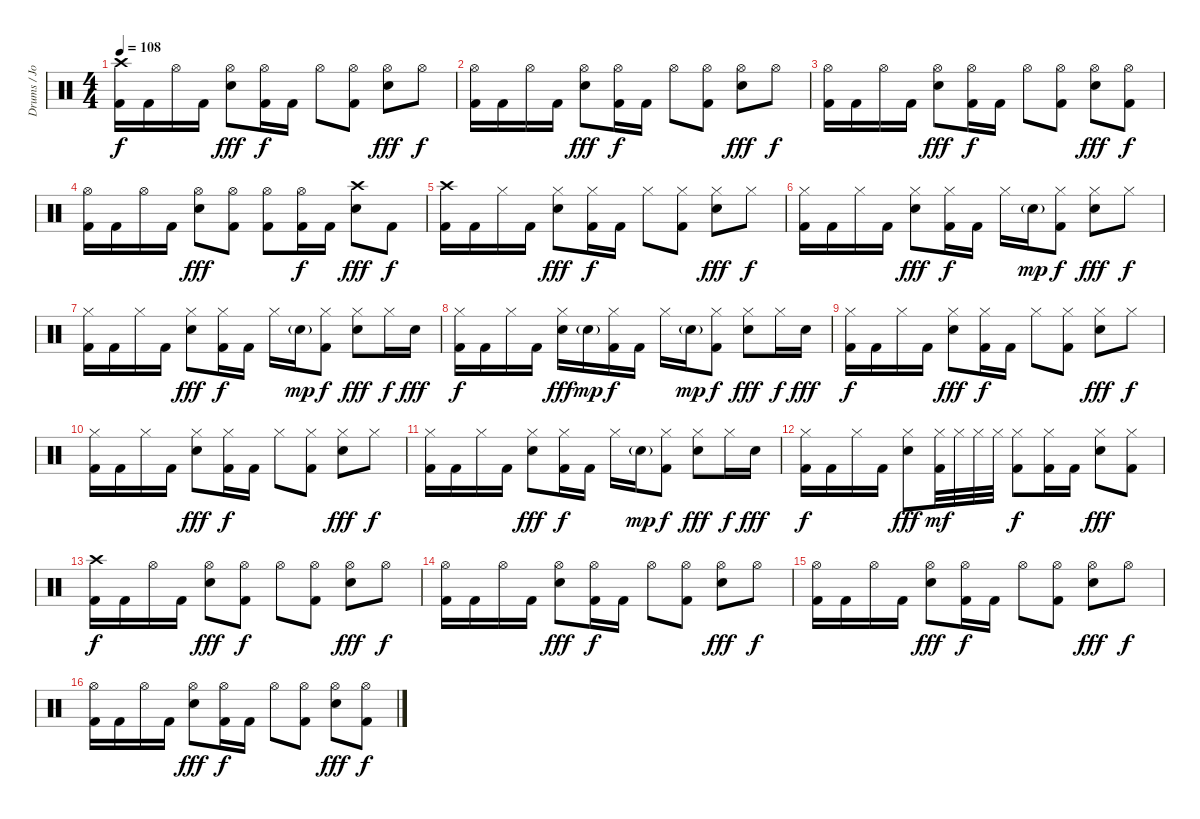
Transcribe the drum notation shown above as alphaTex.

\track ("Drums / Jon Wysocki" "Drums / Jo") {instrument percussion}
\staff {score}
\articulation defaults
\ts (4 4)
\tempo 108
\clef neutral
\ks c
("Crash high (hit)" "Kick (hit) 2").16{dy f} "Kick (hit) 2".16 "Hi-Hat (open)".16 "Kick (hit) 2".16 ("Hi-Hat (open)" "Electric Snare (hit)").8{dy fff} ("Hi-Hat (open)" "Kick (hit) 2").16{dy f} "Kick (hit) 2".16 "Hi-Hat (open)".8 ("Hi-Hat (open)" "Kick (hit) 2").8 ("Hi-Hat (open)" "Electric Snare (hit)").8{dy fff} "Hi-Hat (open)".8{dy f} |
("Hi-Hat (open)" "Kick (hit) 2").16 "Kick (hit) 2".16 "Hi-Hat (open)".16 "Kick (hit) 2".16 ("Hi-Hat (open)" "Electric Snare (hit)").8{dy fff} ("Hi-Hat (open)" "Kick (hit) 2").16{dy f} "Kick (hit) 2".16 "Hi-Hat (open)".8 ("Hi-Hat (open)" "Kick (hit) 2").8 ("Hi-Hat (open)" "Electric Snare (hit)").8{dy fff} "Hi-Hat (open)".8{dy f} |
("Hi-Hat (open)" "Kick (hit) 2").16 "Kick (hit) 2".16 "Hi-Hat (open)".16 "Kick (hit) 2".16 ("Hi-Hat (open)" "Electric Snare (hit)").8{dy fff} ("Hi-Hat (open)" "Kick (hit) 2").16{dy f} "Kick (hit) 2".16 "Hi-Hat (open)".8 ("Hi-Hat (open)" "Kick (hit) 2").8 ("Hi-Hat (open)" "Electric Snare (hit)").8{dy fff} ("Hi-Hat (open)" "Kick (hit) 2").8{dy f} |
("Hi-Hat (open)" "Kick (hit) 2").16 "Kick (hit) 2".16 "Hi-Hat (open)".16 "Kick (hit) 2".16 ("Hi-Hat (open)" "Electric Snare (hit)").8{dy fff} ("Hi-Hat (open)" "Kick (hit) 2").8 ("Hi-Hat (open)" "Kick (hit) 2").8 ("Hi-Hat (open)" "Kick (hit) 2").16{dy f} "Kick (hit) 2".16 ("Crash high (hit)" "Electric Snare (hit)").8{dy fff} "Kick (hit) 2".8{dy f} |
("Crash high (hit)" "Kick (hit) 2").16 "Kick (hit) 2".16 "Hi-Hat (closed)".16 "Kick (hit) 2".16 ("Hi-Hat (closed)" "Electric Snare (hit)").8{dy fff} ("Hi-Hat (closed)" "Kick (hit) 2").16{dy f} "Kick (hit) 2".16 "Hi-Hat (closed)".8 ("Hi-Hat (closed)" "Kick (hit) 2").8 ("Hi-Hat (closed)" "Electric Snare (hit)").8{dy fff} "Hi-Hat (closed)".8{dy f} |
("Hi-Hat (closed)" "Kick (hit) 2").16 "Kick (hit) 2".16 "Hi-Hat (closed)".16 "Kick (hit) 2".16 ("Hi-Hat (closed)" "Electric Snare (hit)").8{dy fff} ("Hi-Hat (closed)" "Kick (hit) 2").16{dy f} "Kick (hit) 2".16 "Hi-Hat (closed)".16 "Electric Snare (hit)"{g}.16{dy mp} ("Hi-Hat (closed)" "Kick (hit) 2").8{dy f} ("Hi-Hat (closed)" "Electric Snare (hit)").8{dy fff} "Hi-Hat (closed)".8{dy f} |
("Hi-Hat (closed)" "Kick (hit) 2").16 "Kick (hit) 2".16 "Hi-Hat (closed)".16 "Kick (hit) 2".16 ("Hi-Hat (closed)" "Electric Snare (hit)").8{dy fff} ("Hi-Hat (closed)" "Kick (hit) 2").16{dy f} "Kick (hit) 2".16 "Hi-Hat (closed)".16 "Electric Snare (hit)"{g}.16{dy mp} ("Hi-Hat (closed)" "Kick (hit) 2").8{dy f} ("Hi-Hat (closed)" "Electric Snare (hit)").8{dy fff} "Hi-Hat (closed)".16{dy f} "Electric Snare (hit)".16{dy fff} |
("Hi-Hat (closed)" "Kick (hit) 2").16{dy f} "Kick (hit) 2".16 "Hi-Hat (closed)".16 "Kick (hit) 2".16 ("Hi-Hat (closed)" "Electric Snare (hit)").16{dy fff} "Electric Snare (hit)"{g}.16{dy mp} ("Hi-Hat (closed)" "Kick (hit) 2").16{dy f} "Kick (hit) 2".16 "Hi-Hat (closed)".16 "Electric Snare (hit)"{g}.16{dy mp} ("Hi-Hat (closed)" "Kick (hit) 2").8{dy f} ("Hi-Hat (closed)" "Electric Snare (hit)").8{dy fff} "Hi-Hat (closed)".16{dy f} "Electric Snare (hit)".16{dy fff} |
("Hi-Hat (closed)" "Kick (hit) 2").16{dy f} "Kick (hit) 2".16 "Hi-Hat (closed)".16 "Kick (hit) 2".16 ("Hi-Hat (closed)" "Electric Snare (hit)").8{dy fff} ("Hi-Hat (closed)" "Kick (hit) 2").16{dy f} "Kick (hit) 2".16 "Hi-Hat (closed)".8 ("Hi-Hat (closed)" "Kick (hit) 2").8 ("Hi-Hat (closed)" "Electric Snare (hit)").8{dy fff} "Hi-Hat (closed)".8{dy f} |
("Hi-Hat (closed)" "Kick (hit) 2").16 "Kick (hit) 2".16 "Hi-Hat (closed)".16 "Kick (hit) 2".16 ("Hi-Hat (closed)" "Electric Snare (hit)").8{dy fff} ("Hi-Hat (closed)" "Kick (hit) 2").16{dy f} "Kick (hit) 2".16 "Hi-Hat (closed)".8 ("Hi-Hat (closed)" "Kick (hit) 2").8 ("Hi-Hat (closed)" "Electric Snare (hit)").8{dy fff} "Hi-Hat (closed)".8{dy f} |
("Hi-Hat (closed)" "Kick (hit) 2").16 "Kick (hit) 2".16 "Hi-Hat (closed)".16 "Kick (hit) 2".16 ("Hi-Hat (closed)" "Electric Snare (hit)").8{dy fff} ("Hi-Hat (closed)" "Kick (hit) 2").16{dy f} "Kick (hit) 2".16 "Hi-Hat (closed)".16 "Electric Snare (hit)"{g}.16{dy mp} ("Hi-Hat (closed)" "Kick (hit) 2").8{dy f} ("Hi-Hat (closed)" "Electric Snare (hit)").8{dy fff} "Hi-Hat (closed)".16{dy f} "Electric Snare (hit)".16{dy fff} |
("Hi-Hat (closed)" "Kick (hit) 2").16{dy f} "Kick (hit) 2".16 "Hi-Hat (closed)".16 "Kick (hit) 2".16 ("Hi-Hat (closed)" "Electric Snare (hit)").8{dy fff} ("Hi-Hat (closed)" "Kick (hit) 2").32{dy mf} "Hi-Hat (closed)".32 "Hi-Hat (closed)".32 "Hi-Hat (closed)".32 ("Hi-Hat (closed)" "Kick (hit) 2").8{dy f} ("Hi-Hat (closed)" "Kick (hit) 2").16 "Kick (hit) 2".16 ("Hi-Hat (closed)" "Electric Snare (hit)").8{dy fff} ("Hi-Hat (closed)" "Kick (hit) 2").8 |
("Crash high (hit)" "Kick (hit) 2").16{dy f} "Kick (hit) 2".16 "Hi-Hat (open)".16 "Kick (hit) 2".16 ("Hi-Hat (open)" "Electric Snare (hit)").8{dy fff} ("Hi-Hat (open)" "Kick (hit) 2").8{dy f} "Hi-Hat (open)".8 ("Hi-Hat (open)" "Kick (hit) 2").8 ("Hi-Hat (open)" "Electric Snare (hit)").8{dy fff} "Hi-Hat (open)".8{dy f} |
("Hi-Hat (open)" "Kick (hit) 2").16 "Kick (hit) 2".16 "Hi-Hat (open)".16 "Kick (hit) 2".16 ("Hi-Hat (open)" "Electric Snare (hit)").8{dy fff} ("Hi-Hat (open)" "Kick (hit) 2").16{dy f} "Kick (hit) 2".16 "Hi-Hat (open)".8 ("Hi-Hat (open)" "Kick (hit) 2").8 ("Hi-Hat (open)" "Electric Snare (hit)").8{dy fff} "Hi-Hat (open)".8{dy f} |
("Hi-Hat (open)" "Kick (hit) 2").16 "Kick (hit) 2".16 "Hi-Hat (open)".16 "Kick (hit) 2".16 ("Hi-Hat (open)" "Electric Snare (hit)").8{dy fff} ("Hi-Hat (open)" "Kick (hit) 2").16{dy f} "Kick (hit) 2".16 "Hi-Hat (open)".8 ("Hi-Hat (open)" "Kick (hit) 2").8 ("Hi-Hat (open)" "Electric Snare (hit)").8{dy fff} "Hi-Hat (open)".8{dy f} |
("Hi-Hat (open)" "Kick (hit) 2").16 "Kick (hit) 2".16 "Hi-Hat (open)".16 "Kick (hit) 2".16 ("Hi-Hat (open)" "Electric Snare (hit)").8{dy fff} ("Hi-Hat (open)" "Kick (hit) 2").16{dy f} "Kick (hit) 2".16 "Hi-Hat (open)".8 ("Hi-Hat (open)" "Kick (hit) 2").8 ("Hi-Hat (open)" "Electric Snare (hit)").8{dy fff} ("Hi-Hat (open)" "Kick (hit) 2").8{dy f}
